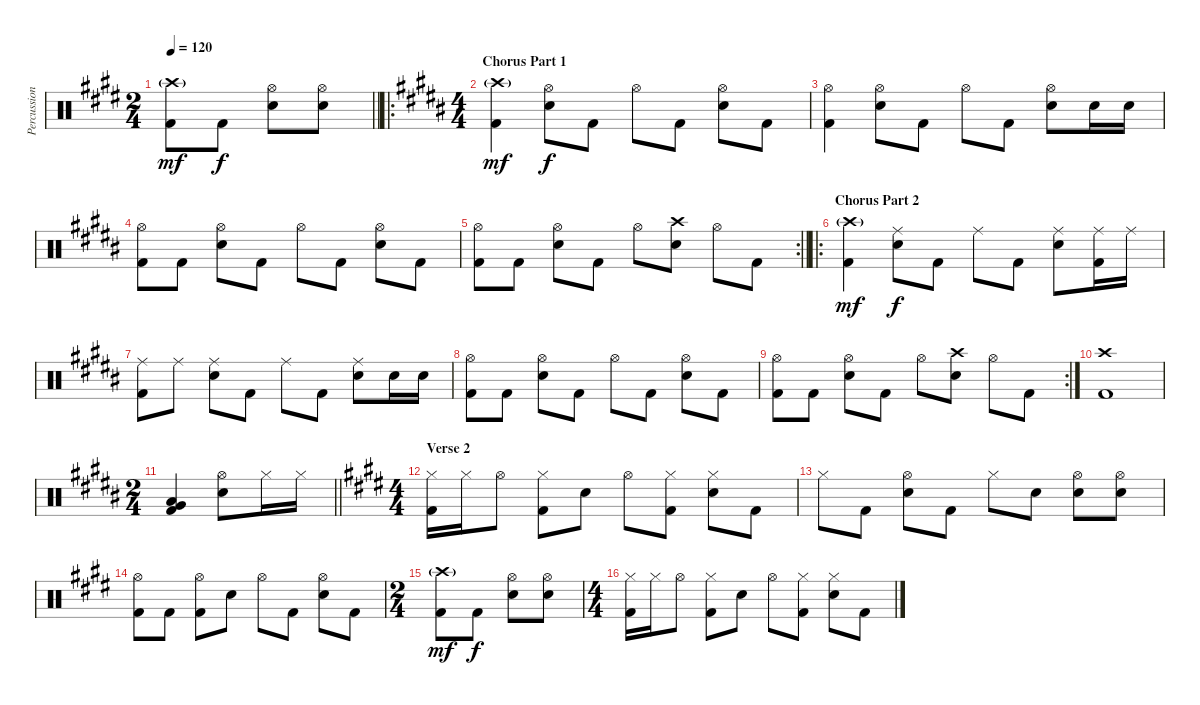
\track ("Percussion" "Percussion") {instrument percussion}
\staff {score}
\articulation defaults
\ts (2 4)
\tempo 120
\clef neutral
\barLineRight lightlight
\ks e
("Crash high (hit)"{g} "Kick (hit) 2").8{dy mf} "Kick (hit) 2".8{dy f} ("Hi-Hat (open)" "Snare (hit) 2").8 ("Hi-Hat (open)" "Snare (hit) 2").8 |
\ro
\ts (4 4)
\section ("" "Chorus Part 1")
\ks b
("Crash high (hit)"{g} "Kick (hit) 2").4{dy mf} ("Hi-Hat (open)" "Snare (hit) 2").8{dy f} "Kick (hit) 2".8 "Hi-Hat (open)".8 "Kick (hit) 2".8 ("Hi-Hat (open)" "Snare (hit) 2").8 "Kick (hit) 2".8 |
("Hi-Hat (open)" "Kick (hit) 2").4 ("Hi-Hat (open)" "Snare (hit) 2").8 "Kick (hit) 2".8 "Hi-Hat (open)".8 "Kick (hit) 2".8 ("Hi-Hat (open)" "Snare (hit) 2").8 "Snare (hit) 2".16 "Snare (hit) 2".16 |
("Hi-Hat (open)" "Kick (hit) 2").8 "Kick (hit) 2".8 ("Hi-Hat (open)" "Snare (hit) 2").8 "Kick (hit) 2".8 "Hi-Hat (open)".8 "Kick (hit) 2".8 ("Hi-Hat (open)" "Snare (hit) 2").8 "Kick (hit) 2".8 |
\rc 2
\barLineRight lightlight
("Hi-Hat (open)" "Kick (hit) 2").8 "Kick (hit) 2".8 ("Hi-Hat (open)" "Snare (hit) 2").8 "Kick (hit) 2".8 "Hi-Hat (open)".8 ("Crash high (hit)" "Snare (hit) 2").8 "Hi-Hat (open)".8 "Kick (hit) 2".8 |
\ro
\section ("" "Chorus Part 2")
("Crash high (hit)"{g} "Kick (hit) 2").4{dy mf} ("Ride (middle)" "Snare (hit) 2").8{dy f} "Kick (hit) 2".8 "Ride (middle)".8 "Kick (hit) 2".8 ("Ride (middle)" "Snare (hit) 2").8 ("Ride (middle)" "Kick (hit) 2").16 "Ride (middle)".16 |
("Ride (middle)" "Kick (hit) 2").8 "Ride (middle)".8 ("Ride (middle)" "Snare (hit) 2").8 "Kick (hit) 2".8 "Ride (middle)".8 "Kick (hit) 2".8 ("Ride (middle)" "Snare (hit) 2").8 "Snare (hit) 2".16 "Snare (hit) 2".16 |
("Hi-Hat (open)" "Kick (hit) 2").8 "Kick (hit) 2".8 ("Hi-Hat (open)" "Snare (hit) 2").8 "Kick (hit) 2".8 "Hi-Hat (open)".8 "Kick (hit) 2".8 ("Hi-Hat (open)" "Snare (hit) 2").8 "Kick (hit) 2".8 |
\rc 2
("Hi-Hat (open)" "Kick (hit) 2").8 "Kick (hit) 2".8 ("Hi-Hat (open)" "Snare (hit) 2").8 "Kick (hit) 2".8 "Hi-Hat (open)".8 ("Crash high (hit)" "Snare (hit) 2").8 "Hi-Hat (open)".8 "Kick (hit) 2".8 |
("Crash high (hit)" "Kick (hit) 2").1 |
\ts (2 4)
\barLineRight lightlight
("Low Tom (hit)" "Very Low Tom (hit)" "Kick (hit) 2").4{bd 60} ("Hi-Hat (open)" "Snare (hit) 2").8 "Hi-Hat (closed)".16 "Hi-Hat (closed)".16 |
\ts (4 4)
\section ("" "Verse 2")
\ks e
("Hi-Hat (closed)" "Kick (hit) 2").16 "Hi-Hat (closed)".16 "Hi-Hat (open)".8 ("Hi-Hat (closed)" "Kick (hit) 2").8 "Snare (hit) 2".8 "Hi-Hat (open)".8 ("Hi-Hat (closed)" "Kick (hit) 2").8 ("Hi-Hat (closed)" "Snare (hit) 2").8 "Kick (hit) 2".8 |
"Hi-Hat (closed)".8 "Kick (hit) 2".8 ("Hi-Hat (open)" "Snare (hit) 2").8 "Kick (hit) 2".8 "Hi-Hat (closed)".8 "Snare (hit) 2".8 ("Hi-Hat (open)" "Snare (hit) 2").8 ("Hi-Hat (open)" "Snare (hit) 2").8 |
("Hi-Hat (open)" "Kick (hit) 2").8 "Kick (hit) 2".8 ("Hi-Hat (open)" "Kick (hit) 2").8 "Snare (hit) 2".8 "Hi-Hat (open)".8 "Kick (hit) 2".8 ("Hi-Hat (open)" "Snare (hit) 2").8 "Kick (hit) 2".8 |
\ts (2 4)
("Crash high (hit)"{g} "Kick (hit) 2").8{dy mf} "Kick (hit) 2".8{dy f} ("Hi-Hat (open)" "Snare (hit) 2").8 ("Hi-Hat (open)" "Snare (hit) 2").8 |
\ts (4 4)
("Hi-Hat (closed)" "Kick (hit) 2").16 "Hi-Hat (closed)".16 "Hi-Hat (open)".8 ("Hi-Hat (closed)" "Kick (hit) 2").8 "Snare (hit) 2".8 "Hi-Hat (open)".8 ("Hi-Hat (closed)" "Kick (hit) 2").8 ("Hi-Hat (closed)" "Snare (hit) 2").8 "Kick (hit) 2".8
